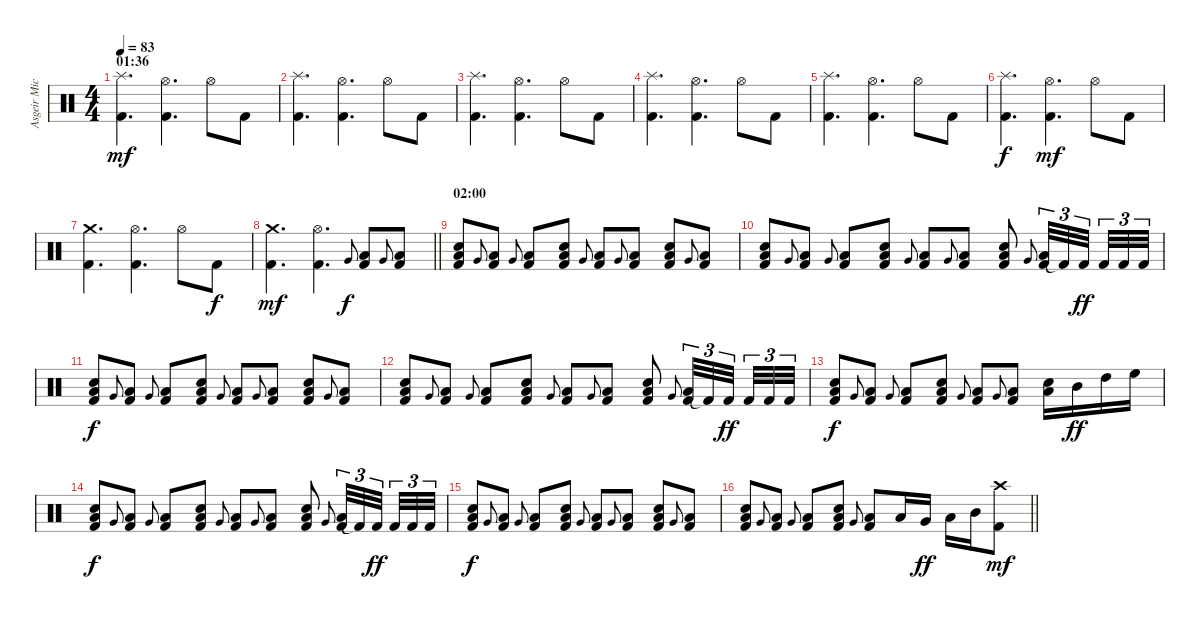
\track ("Asgeir Mickelson" "Asgeir Mic") {instrument percussion}
\staff {score}
\articulation defaults
\ts (4 4)
\section ("" "01:36")
\tempo 83
\clef neutral
\ks c
("Splash (hit)" "Kick (hit) 2").4{d dy mf} ("Hi-Hat (open)" "Kick (hit) 2").4{d} "Hi-Hat (open)".8 "Kick (hit) 2".8 |
("Splash (hit)" "Kick (hit) 2").4{d} ("Hi-Hat (open)" "Kick (hit) 2").4{d} "Hi-Hat (open)".8 "Kick (hit) 2".8 |
("Splash (hit)" "Kick (hit) 2").4{d} ("Hi-Hat (open)" "Kick (hit) 2").4{d} "Hi-Hat (open)".8 "Kick (hit) 2".8 |
("Splash (hit)" "Kick (hit) 2").4{d} ("Hi-Hat (open)" "Kick (hit) 2").4{d} "Hi-Hat (open)".8 "Kick (hit) 2".8 |
("Splash (hit)" "Kick (hit) 2").4{d} ("Hi-Hat (open)" "Kick (hit) 2").4{d} "Hi-Hat (open)".8 "Kick (hit) 2".8 |
("Splash (hit)" "Kick (hit) 2").4{d dy f} ("Hi-Hat (open)" "Kick (hit) 2").4{d dy mf} "Hi-Hat (open)".8 "Kick (hit) 2".8 |
("Crash medium (hit)" "Kick (hit) 2").4{d} ("Hi-Hat (open)" "Kick (hit) 2").4{d} "Hi-Hat (open)".8 "Kick (hit) 2".8{dy f} |
\barLineRight lightlight
("Crash medium (hit)" "Kick (hit) 2").4{d dy mf} ("Hi-Hat (open)" "Kick (hit) 2").4{d} "Very Low Tom (hit)".8{gr onbeat dy f} ("Low Floor Tom (hit)" "Kick (hit) 2").8 "Very Low Tom (hit)".8{gr onbeat} ("Low Floor Tom (hit)" "Kick (hit) 2").8 |
\section ("" "02:00")
("Snare (hit) 2" "Low Floor Tom (hit)" "Kick (hit) 2").8 "Very Low Tom (hit)".8{gr onbeat} ("Low Floor Tom (hit)" "Kick (hit) 2").8 "Very Low Tom (hit)".8{gr onbeat} ("Low Floor Tom (hit)" "Kick (hit) 2").8 ("Snare (hit) 2" "Low Floor Tom (hit)" "Kick (hit) 2").8 "Very Low Tom (hit)".8{gr onbeat} ("Low Floor Tom (hit)" "Kick (hit) 2").8 "Very Low Tom (hit)".8{gr onbeat} ("Low Floor Tom (hit)" "Kick (hit) 2").8 ("Snare (hit) 2" "Low Floor Tom (hit)" "Kick (hit) 2").8 "Very Low Tom (hit)".8{gr onbeat} ("Low Floor Tom (hit)" "Kick (hit) 2").8 |
("Snare (hit) 2" "Low Floor Tom (hit)" "Kick (hit) 2").8 "Very Low Tom (hit)".8{gr onbeat} ("Low Floor Tom (hit)" "Kick (hit) 2").8 "Very Low Tom (hit)".8{gr onbeat} ("Low Floor Tom (hit)" "Kick (hit) 2").8 ("Snare (hit) 2" "Low Floor Tom (hit)" "Kick (hit) 2").8 "Very Low Tom (hit)".8{gr onbeat} ("Low Floor Tom (hit)" "Kick (hit) 2").8 "Very Low Tom (hit)".8{gr onbeat} ("Low Floor Tom (hit)" "Kick (hit) 2").8 ("Snare (hit) 2" "Low Floor Tom (hit)" "Kick (hit) 2").8 "Very Low Tom (hit)".8{gr onbeat} ("Low Floor Tom (hit)" "Kick (hit) 2").32{tu (3 2)} "Kick (hit) 2"{t}.32{tu (3 2)} "Kick (hit) 2".32{tu (3 2) dy ff beam splitsecondary} "Kick (hit) 2".32{tu (3 2)} "Kick (hit) 2".32{tu (3 2)} "Kick (hit) 2".32{tu (3 2)} |
("Snare (hit) 2" "Low Floor Tom (hit)" "Kick (hit) 2").8{dy f} "Very Low Tom (hit)".8{gr onbeat} ("Low Floor Tom (hit)" "Kick (hit) 2").8 "Very Low Tom (hit)".8{gr onbeat} ("Low Floor Tom (hit)" "Kick (hit) 2").8 ("Snare (hit) 2" "Low Floor Tom (hit)" "Kick (hit) 2").8 "Very Low Tom (hit)".8{gr onbeat} ("Low Floor Tom (hit)" "Kick (hit) 2").8 "Very Low Tom (hit)".8{gr onbeat} ("Low Floor Tom (hit)" "Kick (hit) 2").8 ("Snare (hit) 2" "Low Floor Tom (hit)" "Kick (hit) 2").8 "Very Low Tom (hit)".8{gr onbeat} ("Low Floor Tom (hit)" "Kick (hit) 2").8 |
("Snare (hit) 2" "Low Floor Tom (hit)" "Kick (hit) 2").8 "Very Low Tom (hit)".8{gr onbeat} ("Low Floor Tom (hit)" "Kick (hit) 2").8 "Very Low Tom (hit)".8{gr onbeat} ("Low Floor Tom (hit)" "Kick (hit) 2").8 ("Snare (hit) 2" "Low Floor Tom (hit)" "Kick (hit) 2").8 "Very Low Tom (hit)".8{gr onbeat} ("Low Floor Tom (hit)" "Kick (hit) 2").8 "Very Low Tom (hit)".8{gr onbeat} ("Low Floor Tom (hit)" "Kick (hit) 2").8 ("Snare (hit) 2" "Low Floor Tom (hit)" "Kick (hit) 2").8 "Very Low Tom (hit)".8{gr onbeat} ("Low Floor Tom (hit)" "Kick (hit) 2").32{tu (3 2)} "Kick (hit) 2"{t}.32{tu (3 2)} "Kick (hit) 2".32{tu (3 2) dy ff beam splitsecondary} "Kick (hit) 2".32{tu (3 2)} "Kick (hit) 2".32{tu (3 2)} "Kick (hit) 2".32{tu (3 2)} |
("Snare (hit) 2" "Low Floor Tom (hit)" "Kick (hit) 2").8{dy f} "Very Low Tom (hit)".8{gr onbeat} ("Low Floor Tom (hit)" "Kick (hit) 2").8 "Very Low Tom (hit)".8{gr onbeat} ("Low Floor Tom (hit)" "Kick (hit) 2").8 ("Snare (hit) 2" "Low Floor Tom (hit)" "Kick (hit) 2").8 "Very Low Tom (hit)".8{gr onbeat} ("Low Floor Tom (hit)" "Kick (hit) 2").8 "Very Low Tom (hit)".8{gr onbeat} ("Low Floor Tom (hit)" "Kick (hit) 2").8 ("Snare (hit) 2" "Low Floor Tom (hit)").16 "Mid Tom (hit)".16{dy ff} "High Tom (hit)".16 "High Floor Tom (hit)".16 |
("Snare (hit) 2" "Low Floor Tom (hit)" "Kick (hit) 2").8{dy f} "Very Low Tom (hit)".8{gr onbeat} ("Low Floor Tom (hit)" "Kick (hit) 2").8 "Very Low Tom (hit)".8{gr onbeat} ("Low Floor Tom (hit)" "Kick (hit) 2").8 ("Snare (hit) 2" "Low Floor Tom (hit)" "Kick (hit) 2").8 "Very Low Tom (hit)".8{gr onbeat} ("Low Floor Tom (hit)" "Kick (hit) 2").8 "Very Low Tom (hit)".8{gr onbeat} ("Low Floor Tom (hit)" "Kick (hit) 2").8 ("Snare (hit) 2" "Low Floor Tom (hit)" "Kick (hit) 2").8 "Very Low Tom (hit)".8{gr onbeat} ("Low Floor Tom (hit)" "Kick (hit) 2").32{tu (3 2)} "Kick (hit) 2"{t}.32{tu (3 2)} "Kick (hit) 2".32{tu (3 2) dy ff beam splitsecondary} "Kick (hit) 2".32{tu (3 2)} "Kick (hit) 2".32{tu (3 2)} "Kick (hit) 2".32{tu (3 2)} |
("Snare (hit) 2" "Low Floor Tom (hit)" "Kick (hit) 2").8{dy f} "Very Low Tom (hit)".8{gr onbeat} ("Low Floor Tom (hit)" "Kick (hit) 2").8 "Very Low Tom (hit)".8{gr onbeat} ("Low Floor Tom (hit)" "Kick (hit) 2").8 ("Snare (hit) 2" "Low Floor Tom (hit)" "Kick (hit) 2").8 "Very Low Tom (hit)".8{gr onbeat} ("Low Floor Tom (hit)" "Kick (hit) 2").8 "Very Low Tom (hit)".8{gr onbeat} ("Low Floor Tom (hit)" "Kick (hit) 2").8 ("Snare (hit) 2" "Low Floor Tom (hit)" "Kick (hit) 2").8 "Very Low Tom (hit)".8{gr onbeat} ("Low Floor Tom (hit)" "Kick (hit) 2").8 |
\barLineRight lightlight
("Snare (hit) 2" "Low Floor Tom (hit)" "Kick (hit) 2").8 "Very Low Tom (hit)".8{gr onbeat} ("Low Floor Tom (hit)" "Kick (hit) 2").8 "Very Low Tom (hit)".8{gr onbeat} ("Low Floor Tom (hit)" "Kick (hit) 2").8 ("Snare (hit) 2" "Low Floor Tom (hit)" "Kick (hit) 2").8 "Very Low Tom (hit)".8{gr onbeat} ("Low Floor Tom (hit)" "Kick (hit) 2").8 "Low Floor Tom (hit)".16 "Very Low Tom (hit)".16{dy ff} "Low Tom (hit)".16 "Mid Tom (hit)".16 ("Crash high (hit)" "Kick (hit) 2").8{dy mf}
